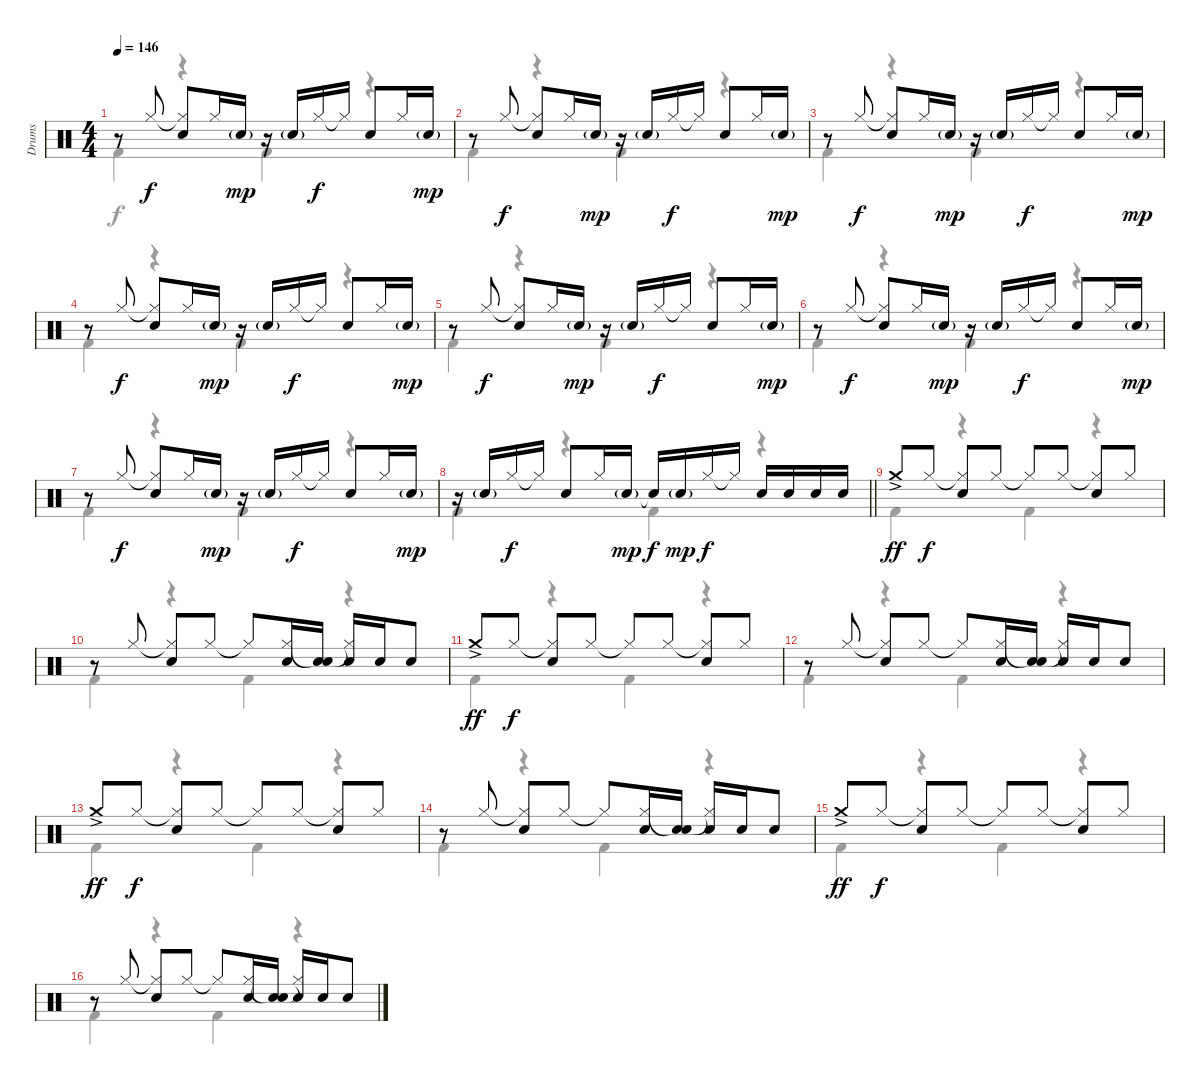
\track ("Drums" "Drums") {instrument percussion}
\staff {score}
\articulation defaults
\voice
\ts (4 4)
\tempo 146
\clef neutral
\ks c
r.8{dy mp} "Hi-Hat (closed)".8{dy f} ("Hi-Hat (closed)"{t} "Snare (hit) 2").8 "Hi-Hat (closed)".16 "Snare (hit) 2"{g}.16{dy mp} r.16 "Snare (hit) 2"{g}.16 "Hi-Hat (closed)".16{dy f} "Hi-Hat (closed)"{t}.16 "Snare (hit) 2".8 "Hi-Hat (closed)".16 "Snare (hit) 2"{g}.16{dy mp} |
r.8 "Hi-Hat (closed)".8{dy f} ("Hi-Hat (closed)"{t} "Snare (hit) 2").8 "Hi-Hat (closed)".16 "Snare (hit) 2"{g}.16{dy mp} r.16 "Snare (hit) 2"{g}.16 "Hi-Hat (closed)".16{dy f} "Hi-Hat (closed)"{t}.16 "Snare (hit) 2".8 "Hi-Hat (closed)".16 "Snare (hit) 2"{g}.16{dy mp} |
r.8 "Hi-Hat (closed)".8{dy f} ("Hi-Hat (closed)"{t} "Snare (hit) 2").8 "Hi-Hat (closed)".16 "Snare (hit) 2"{g}.16{dy mp} r.16 "Snare (hit) 2"{g}.16 "Hi-Hat (closed)".16{dy f} "Hi-Hat (closed)"{t}.16 "Snare (hit) 2".8 "Hi-Hat (closed)".16 "Snare (hit) 2"{g}.16{dy mp} |
r.8 "Hi-Hat (closed)".8{dy f} ("Hi-Hat (closed)"{t} "Snare (hit) 2").8 "Hi-Hat (closed)".16 "Snare (hit) 2"{g}.16{dy mp} r.16 "Snare (hit) 2"{g}.16 "Hi-Hat (closed)".16{dy f} "Hi-Hat (closed)"{t}.16 "Snare (hit) 2".8 "Hi-Hat (closed)".16 "Snare (hit) 2"{g}.16{dy mp} |
r.8 "Hi-Hat (closed)".8{dy f} ("Hi-Hat (closed)"{t} "Snare (hit) 2").8 "Hi-Hat (closed)".16 "Snare (hit) 2"{g}.16{dy mp} r.16 "Snare (hit) 2"{g}.16 "Hi-Hat (closed)".16{dy f} "Hi-Hat (closed)"{t}.16 "Snare (hit) 2".8 "Hi-Hat (closed)".16 "Snare (hit) 2"{g}.16{dy mp} |
r.8 "Hi-Hat (closed)".8{dy f} ("Hi-Hat (closed)"{t} "Snare (hit) 2").8 "Hi-Hat (closed)".16 "Snare (hit) 2"{g}.16{dy mp} r.16 "Snare (hit) 2"{g}.16 "Hi-Hat (closed)".16{dy f} "Hi-Hat (closed)"{t}.16 "Snare (hit) 2".8 "Hi-Hat (closed)".16 "Snare (hit) 2"{g}.16{dy mp} |
r.8 "Hi-Hat (closed)".8{dy f} ("Hi-Hat (closed)"{t} "Snare (hit) 2").8 "Hi-Hat (closed)".16 "Snare (hit) 2"{g}.16{dy mp} r.16 "Snare (hit) 2"{g}.16 "Hi-Hat (closed)".16{dy f} "Hi-Hat (closed)"{t}.16 "Snare (hit) 2".8 "Hi-Hat (closed)".16 "Snare (hit) 2"{g}.16{dy mp} |
\barLineRight lightlight
r.16 "Snare (hit) 2"{g}.16 "Hi-Hat (closed)".16{dy f} "Hi-Hat (closed)"{t}.16 "Snare (hit) 2".8 "Hi-Hat (closed)".16 "Snare (hit) 2"{g}.16{dy mp} "Snare (hit)"{t}.16{dy f} "Snare (hit) 2"{g}.16{dy mp} "Hi-Hat (closed)".16{dy f} "Hi-Hat (closed)"{t}.16 "Snare (hit) 2".16 "Snare (hit) 2".16 "Snare (hit) 2".16 "Snare (hit) 2".16 |
"Crash medium (hit)"{ac}.8{dy ff} "Hi-Hat (closed)".8{dy f} ("Hi-Hat (closed)"{t} "Snare (hit) 2").8 "Hi-Hat (closed)".8 "Hi-Hat (closed)"{t}.8 "Hi-Hat (closed)".8 ("Hi-Hat (closed)"{t} "Snare (hit) 2").8 "Hi-Hat (closed)".8 |
r.8 "Hi-Hat (closed)".8 ("Hi-Hat (closed)"{t} "Snare (hit) 2").8 "Hi-Hat (closed)".8 "Hi-Hat (closed)"{t}.8 ("Hi-Hat (closed)" "Snare (hit) 2").16 ("Snare (hit)"{t} "Snare (hit) 2").16 ("Hi-Hat (closed)"{t} "Snare (hit) 2").16 "Snare (hit) 2".16 "Snare (hit) 2".8 |
"Crash medium (hit)"{ac}.8{dy ff} "Hi-Hat (closed)".8{dy f} ("Hi-Hat (closed)"{t} "Snare (hit) 2").8 "Hi-Hat (closed)".8 "Hi-Hat (closed)"{t}.8 "Hi-Hat (closed)".8 ("Hi-Hat (closed)"{t} "Snare (hit) 2").8 "Hi-Hat (closed)".8 |
r.8 "Hi-Hat (closed)".8 ("Hi-Hat (closed)"{t} "Snare (hit) 2").8 "Hi-Hat (closed)".8 "Hi-Hat (closed)"{t}.8 ("Hi-Hat (closed)" "Snare (hit) 2").16 ("Snare (hit)"{t} "Snare (hit) 2").16 ("Hi-Hat (closed)"{t} "Snare (hit) 2").16 "Snare (hit) 2".16 "Snare (hit) 2".8 |
"Crash medium (hit)"{ac}.8{dy ff} "Hi-Hat (closed)".8{dy f} ("Hi-Hat (closed)"{t} "Snare (hit) 2").8 "Hi-Hat (closed)".8 "Hi-Hat (closed)"{t}.8 "Hi-Hat (closed)".8 ("Hi-Hat (closed)"{t} "Snare (hit) 2").8 "Hi-Hat (closed)".8 |
r.8 "Hi-Hat (closed)".8 ("Hi-Hat (closed)"{t} "Snare (hit) 2").8 "Hi-Hat (closed)".8 "Hi-Hat (closed)"{t}.8 ("Hi-Hat (closed)" "Snare (hit) 2").16 ("Snare (hit)"{t} "Snare (hit) 2").16 ("Hi-Hat (closed)"{t} "Snare (hit) 2").16 "Snare (hit) 2".16 "Snare (hit) 2".8 |
"Crash medium (hit)"{ac}.8{dy ff} "Hi-Hat (closed)".8{dy f} ("Hi-Hat (closed)"{t} "Snare (hit) 2").8 "Hi-Hat (closed)".8 "Hi-Hat (closed)"{t}.8 "Hi-Hat (closed)".8 ("Hi-Hat (closed)"{t} "Snare (hit) 2").8 "Hi-Hat (closed)".8 |
r.8 "Hi-Hat (closed)".8 ("Hi-Hat (closed)"{t} "Snare (hit) 2").8 "Hi-Hat (closed)".8 "Hi-Hat (closed)"{t}.8 ("Hi-Hat (closed)" "Snare (hit) 2").16 ("Snare (hit)"{t} "Snare (hit) 2").16 ("Hi-Hat (closed)"{t} "Snare (hit) 2").16 "Snare (hit) 2".16 "Snare (hit) 2".8
\voice
\clef neutral
\ottava regular
\simile none
\ks c "Kick (hit) 2".4{dy f}
r.4 "Kick (hit) 2".4 r.4 |
"Kick (hit) 2".4 r.4 "Kick (hit) 2".4 r.4 |
"Kick (hit) 2".4 r.4 "Kick (hit) 2".4 r.4 |
"Kick (hit) 2".4 r.4 "Kick (hit) 2".4 r.4 |
"Kick (hit) 2".4 r.4 "Kick (hit) 2".4 r.4 |
"Kick (hit) 2".4 r.4 "Kick (hit) 2".4 r.4 |
"Kick (hit) 2".4 r.4 "Kick (hit) 2".4 r.4 |
\barLineRight lightlight "Kick (hit) 2".4
r.4 "Kick (hit) 2".4 r.4 |
"Kick (hit) 2".4 r.4 "Kick (hit) 2".4 r.4 |
"Kick (hit) 2".4 r.4 "Kick (hit) 2".4 r.4 |
"Kick (hit) 2".4 r.4 "Kick (hit) 2".4 r.4 |
"Kick (hit) 2".4 r.4 "Kick (hit) 2".4 r.4 |
"Kick (hit) 2".4 r.4 "Kick (hit) 2".4 r.4 |
"Kick (hit) 2".4 r.4 "Kick (hit) 2".4 r.4 |
"Kick (hit) 2".4 r.4 "Kick (hit) 2".4 r.4 |
"Kick (hit) 2".4 r.4 "Kick (hit) 2".4 r.4
